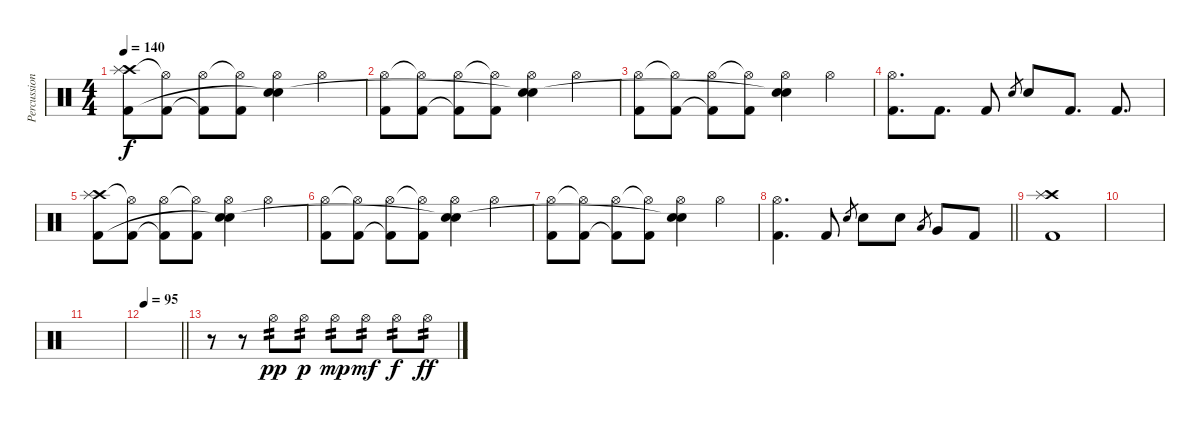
\track ("Percussion" "Percussion") {instrument percussion}
\staff {score}
\articulation defaults
\ts (4 4)
\tempo 140
\clef neutral
\ks c
("Crash high (hit)" "Splash (hit)" "Kick (hit) 2").8{dy f} ("Hi-Hat (open)"{t} "Kick (hit) 2").8 ("Hi-Hat (open)" "Kick (hit) 2"{t}).8 ("Hi-Hat (open)"{t} "Kick (hit) 2").8 ("Hi-Hat (open)" "Electric Snare (hit)" "Snare (hit)"{t}).4 "Hi-Hat (open)".4 |
("Hi-Hat (open)" "Kick (hit) 2").8 ("Hi-Hat (open)"{t} "Kick (hit) 2").8 ("Hi-Hat (open)" "Kick (hit) 2"{t}).8 ("Hi-Hat (open)"{t} "Kick (hit) 2").8 ("Hi-Hat (open)" "Electric Snare (hit)" "Snare (hit)"{t}).4 "Hi-Hat (open)".4 |
("Hi-Hat (open)" "Kick (hit) 2").8 ("Hi-Hat (open)"{t} "Kick (hit) 2").8 ("Hi-Hat (open)" "Kick (hit) 2"{t}).8 ("Hi-Hat (open)"{t} "Kick (hit) 2").8 ("Hi-Hat (open)" "Electric Snare (hit)" "Snare (hit)"{t}).4 "Hi-Hat (open)".4 |
("Hi-Hat (open)" "Kick (hit) 2").8{d} "Kick (hit) 2".8{d} "Kick (hit) 2".8 "Electric Snare (hit)".8{gr} "Electric Snare (hit)".8 "Kick (hit) 2".8{d} "Kick (hit) 2".8{d} |
("Crash high (hit)" "Splash (hit)" "Kick (hit) 2").8 ("Hi-Hat (open)"{t} "Kick (hit) 2").8 ("Hi-Hat (open)" "Kick (hit) 2"{t}).8 ("Hi-Hat (open)"{t} "Kick (hit) 2").8 ("Hi-Hat (open)" "Electric Snare (hit)" "Snare (hit)"{t}).4 "Hi-Hat (open)".4 |
("Hi-Hat (open)" "Kick (hit) 2").8 ("Hi-Hat (open)"{t} "Kick (hit) 2").8 ("Hi-Hat (open)" "Kick (hit) 2"{t}).8 ("Hi-Hat (open)"{t} "Kick (hit) 2").8 ("Hi-Hat (open)" "Electric Snare (hit)" "Snare (hit)"{t}).4 "Hi-Hat (open)".4 |
("Hi-Hat (open)" "Kick (hit) 2").8 ("Hi-Hat (open)"{t} "Kick (hit) 2").8 ("Hi-Hat (open)" "Kick (hit) 2"{t}).8 ("Hi-Hat (open)"{t} "Kick (hit) 2").8 ("Hi-Hat (open)" "Electric Snare (hit)" "Snare (hit)"{t}).4 "Hi-Hat (open)".4 |
\barLineRight lightlight
("Hi-Hat (open)" "Kick (hit) 2").4{d} "Kick (hit) 2".8 "Electric Snare (hit)".8{gr} "Electric Snare (hit)".8 "Electric Snare (hit)".8 "Low Floor Tom (hit)".8{gr} "Very Low Tom (hit)".8 "Kick (hit) 2".8 |
("Crash high (hit)" "Splash (hit)" "Kick (hit) 2").1 |
|
|
\tempo 95
\barLineRight lightlight
|
r.8 r.8 "Hi-Hat (open)".8{tp 2 dy pp} "Hi-Hat (open)".8{tp 2 dy p} "Hi-Hat (open)".8{tp 2 dy mp} "Hi-Hat (open)".8{tp 2 dy mf} "Hi-Hat (open)".8{tp 2 dy f} "Hi-Hat (open)".8{tp 2 dy ff}
